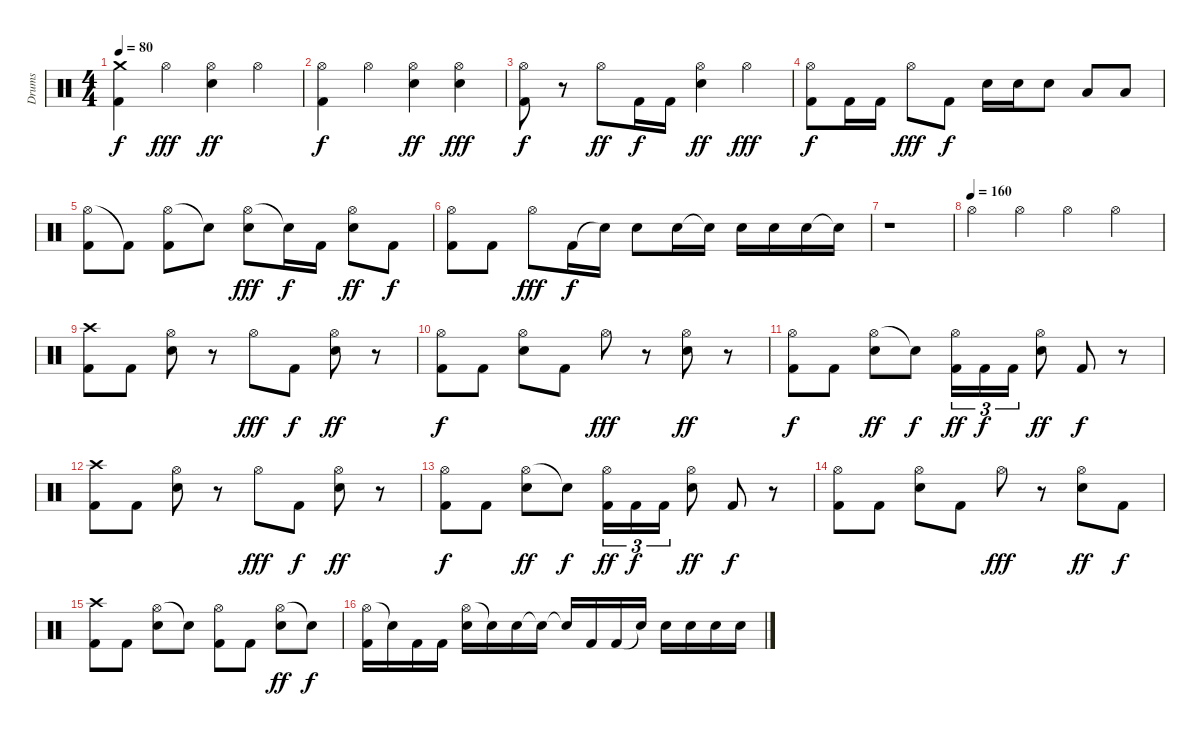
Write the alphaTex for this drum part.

\track ("Drums" "Drums") {instrument percussion}
\staff {score}
\articulation defaults
\ts (4 4)
\tempo 80
\clef neutral
\ks c
("Crash medium (hit)" "Kick (hit) 2").4{dy f} "Hi-Hat (open)".4{dy fff} ("Hi-Hat (open)" "Electric Snare (hit)").4{dy ff} "Hi-Hat (open)".4 |
("Hi-Hat (open)" "Kick (hit) 2").4{dy f} "Hi-Hat (open)".4 ("Hi-Hat (open)" "Electric Snare (hit)").4{dy ff} ("Hi-Hat (open)" "Electric Snare (hit)").4{dy fff} |
("Hi-Hat (open)" "Kick (hit) 2").8{dy f} r.8 "Hi-Hat (open)".8{dy ff} "Kick (hit) 2".16{dy f} "Kick (hit) 2".16 ("Hi-Hat (open)" "Electric Snare (hit)").4{dy ff} "Hi-Hat (open)".4{dy fff} |
("Hi-Hat (open)" "Kick (hit) 2").8{dy f} "Kick (hit) 2".16 "Kick (hit) 2".16 "Hi-Hat (open)".8{dy fff} "Kick (hit) 2".8{dy f} "Electric Snare (hit)".16 "Electric Snare (hit)".16 "Electric Snare (hit)".8 "Low Tom (hit)".8 "Low Tom (hit)".8 |
("Hi-Hat (open)" "Kick (hit) 2").8 "Kick (hit) 2"{t}.8 ("Hi-Hat (open)" "Kick (hit) 2").8 "Electric Snare (hit)"{t}.8 ("Hi-Hat (open)" "Electric Snare (hit)").8{dy fff} "Snare (hit)"{t}.16{dy f} "Kick (hit) 2".16 ("Hi-Hat (open)" "Electric Snare (hit)").8{dy ff} "Kick (hit) 2".8{dy f} |
("Hi-Hat (open)" "Kick (hit) 2").8 "Kick (hit) 2".8 "Hi-Hat (open)".8{dy fff} "Kick (hit) 2".16{dy f} "Snare (hit)"{t}.16 "Electric Snare (hit)".8 "Electric Snare (hit)".16 "Snare (hit)"{t}.16 "Electric Snare (hit)".16 "Electric Snare (hit)".16 "Electric Snare (hit)".16 "Snare (hit)"{t}.16 |
r.1 |
\tempo 164
\tempo (160)
"Hi-Hat (open)".4 "Hi-Hat (open)".4 "Hi-Hat (open)".4 "Hi-Hat (open)".4 |
("Crash high (hit)" "Kick (hit) 2").8 "Kick (hit) 2".8 ("Hi-Hat (open)" "Electric Snare (hit)").8 r.8 "Hi-Hat (open)".8{dy fff} "Kick (hit) 2".8{dy f} ("Hi-Hat (open)" "Electric Snare (hit)").8{dy ff} r.8 |
("Hi-Hat (open)" "Kick (hit) 2").8{dy f} "Kick (hit) 2".8 ("Hi-Hat (open)" "Electric Snare (hit)").8 "Kick (hit) 2".8 "Hi-Hat (open)".8{dy fff} r.8 ("Hi-Hat (open)" "Electric Snare (hit)").8{dy ff} r.8 |
("Hi-Hat (open)" "Kick (hit) 2").8{dy f} "Kick (hit) 2".8 ("Hi-Hat (open)" "Electric Snare (hit)").8{dy ff} "Snare (hit)"{t}.8{dy f} ("Hi-Hat (open)" "Kick (hit) 2").16{tu (3 2) dy ff} "Kick (hit) 2".16{tu (3 2) dy f} "Kick (hit) 2".16{tu (3 2)} ("Hi-Hat (open)" "Electric Snare (hit)").8{dy ff} "Kick (hit) 2".8{dy f} r.8 |
("Crash high (hit)" "Kick (hit) 2").8 "Kick (hit) 2".8 ("Hi-Hat (open)" "Electric Snare (hit)").8 r.8 "Hi-Hat (open)".8{dy fff} "Kick (hit) 2".8{dy f} ("Hi-Hat (open)" "Electric Snare (hit)").8{dy ff} r.8 |
("Hi-Hat (open)" "Kick (hit) 2").8{dy f} "Kick (hit) 2".8 ("Hi-Hat (open)" "Electric Snare (hit)").8{dy ff} "Snare (hit)"{t}.8{dy f} ("Hi-Hat (open)" "Kick (hit) 2").16{tu (3 2) dy ff} "Kick (hit) 2".16{tu (3 2) dy f} "Kick (hit) 2".16{tu (3 2)} ("Hi-Hat (open)" "Electric Snare (hit)").8{dy ff} "Kick (hit) 2".8{dy f} r.8 |
("Hi-Hat (open)" "Kick (hit) 2").8 "Kick (hit) 2".8 ("Hi-Hat (open)" "Electric Snare (hit)").8 "Kick (hit) 2".8 "Hi-Hat (open)".8{dy fff} r.8 ("Hi-Hat (open)" "Electric Snare (hit)").8{dy ff} "Kick (hit) 2".8{dy f} |
("Crash high (hit)" "Kick (hit) 2").8 "Kick (hit) 2".8 ("Hi-Hat (open)" "Electric Snare (hit)").8 "Snare (hit)"{t}.8 ("Hi-Hat (open)" "Kick (hit) 2").8 "Kick (hit) 2".8 ("Hi-Hat (open)" "Electric Snare (hit)").8{dy ff} "Snare (hit)"{t}.8{dy f} |
("Hi-Hat (open)" "Kick (hit) 2").16 "Snare (hit)"{t}.16 "Kick (hit) 2".16 "Kick (hit) 2".16 ("Hi-Hat (open)" "Electric Snare (hit)").16 "Snare (hit)"{t}.16 "Electric Snare (hit)".16 "Snare (hit)"{t}.16 "Snare (hit)"{t}.16 "Kick (hit) 2".16 "Kick (hit) 2".16 "Snare (hit)"{t}.16 "Electric Snare (hit)".16 "Electric Snare (hit)".16 "Electric Snare (hit)".16 "Electric Snare (hit)".16
